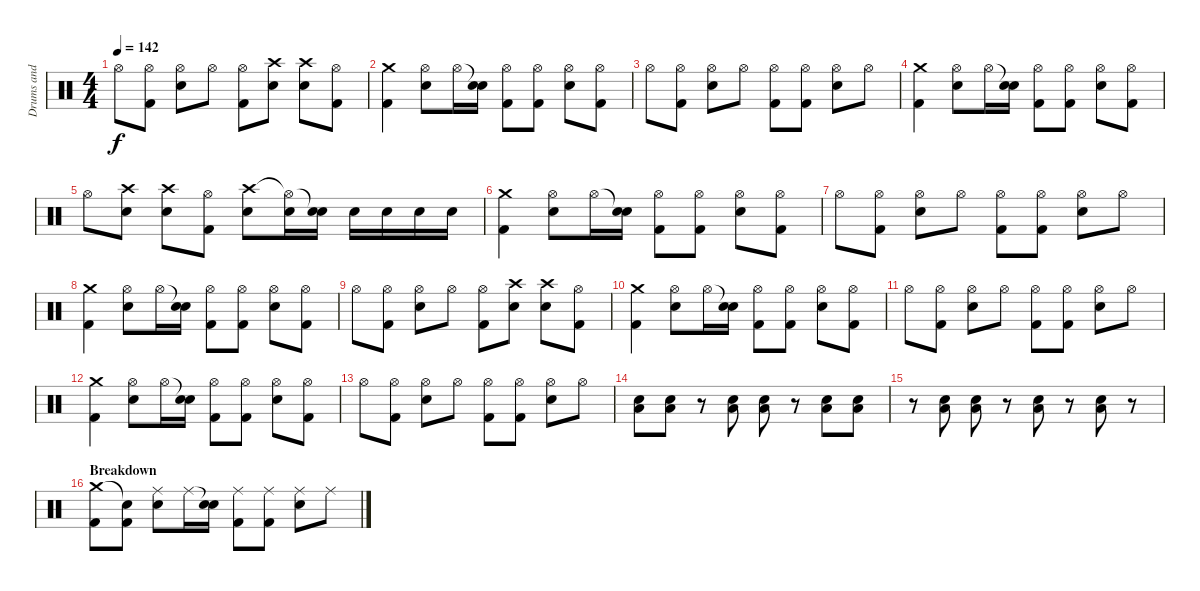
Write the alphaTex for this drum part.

\track ("Drums and Percussion" "Drums and ") {instrument percussion}
\staff {score}
\articulation defaults
\ts (4 4)
\tempo 142
\clef neutral
\ks c "Hi-Hat (open)".8{dy f}
("Hi-Hat (open)" "Kick (hit) 2").8 ("Hi-Hat (open)" "Electric Snare (hit)").8 "Hi-Hat (open)".8 ("Hi-Hat (open)" "Kick (hit) 2").8 ("Crash high (hit)" "Electric Snare (hit)").8 ("Crash high (hit)" "Electric Snare (hit)").8 ("Hi-Hat (open)" "Kick (hit) 2").8 |
("Crash medium (hit)" "Kick (hit) 2").4 ("Hi-Hat (open)" "Electric Snare (hit)").8 "Hi-Hat (open)".16 ("Snare (hit)"{t} "Electric Snare (hit)").16 ("Hi-Hat (open)" "Kick (hit) 2").8 ("Hi-Hat (open)" "Kick (hit) 2").8 ("Hi-Hat (open)" "Electric Snare (hit)").8 ("Hi-Hat (open)" "Kick (hit) 2").8 |
"Hi-Hat (open)".8 ("Hi-Hat (open)" "Kick (hit) 2").8 ("Hi-Hat (open)" "Electric Snare (hit)").8 "Hi-Hat (open)".8 ("Hi-Hat (open)" "Kick (hit) 2").8 ("Hi-Hat (open)" "Kick (hit) 2").8 ("Hi-Hat (open)" "Electric Snare (hit)").8 "Hi-Hat (open)".8 |
("Crash medium (hit)" "Kick (hit) 2").4 ("Hi-Hat (open)" "Electric Snare (hit)").8 "Hi-Hat (open)".16 ("Snare (hit)"{t} "Electric Snare (hit)").16 ("Hi-Hat (open)" "Kick (hit) 2").8 ("Hi-Hat (open)" "Kick (hit) 2").8 ("Hi-Hat (open)" "Electric Snare (hit)").8 ("Hi-Hat (open)" "Kick (hit) 2").8 |
"Hi-Hat (open)".8 ("Crash high (hit)" "Electric Snare (hit)").8 ("Crash high (hit)" "Electric Snare (hit)").8 ("Hi-Hat (open)" "Kick (hit) 2").8 ("Crash high (hit)" "Electric Snare (hit)").8 ("Hi-Hat (open)"{t} "Electric Snare (hit)").16 ("Snare (hit)"{t} "Electric Snare (hit)").16 "Electric Snare (hit)".16 "Electric Snare (hit)".16 "Electric Snare (hit)".16 "Electric Snare (hit)".16 |
("Crash medium (hit)" "Kick (hit) 2").4 ("Hi-Hat (open)" "Electric Snare (hit)").8 "Hi-Hat (open)".16 ("Snare (hit)"{t} "Electric Snare (hit)").16 ("Hi-Hat (open)" "Kick (hit) 2").8 ("Hi-Hat (open)" "Kick (hit) 2").8 ("Hi-Hat (open)" "Electric Snare (hit)").8 ("Hi-Hat (open)" "Kick (hit) 2").8 |
"Hi-Hat (open)".8 ("Hi-Hat (open)" "Kick (hit) 2").8 ("Hi-Hat (open)" "Electric Snare (hit)").8 "Hi-Hat (open)".8 ("Hi-Hat (open)" "Kick (hit) 2").8 ("Hi-Hat (open)" "Kick (hit) 2").8 ("Hi-Hat (open)" "Electric Snare (hit)").8 "Hi-Hat (open)".8 |
("Crash medium (hit)" "Kick (hit) 2").4 ("Hi-Hat (open)" "Electric Snare (hit)").8 "Hi-Hat (open)".16 ("Snare (hit)"{t} "Electric Snare (hit)").16 ("Hi-Hat (open)" "Kick (hit) 2").8 ("Hi-Hat (open)" "Kick (hit) 2").8 ("Hi-Hat (open)" "Electric Snare (hit)").8 ("Hi-Hat (open)" "Kick (hit) 2").8 |
"Hi-Hat (open)".8 ("Hi-Hat (open)" "Kick (hit) 2").8 ("Hi-Hat (open)" "Electric Snare (hit)").8 "Hi-Hat (open)".8 ("Hi-Hat (open)" "Kick (hit) 2").8 ("Crash high (hit)" "Electric Snare (hit)").8 ("Crash high (hit)" "Electric Snare (hit)").8 ("Hi-Hat (open)" "Kick (hit) 2").8 |
("Crash medium (hit)" "Kick (hit) 2").4 ("Hi-Hat (open)" "Electric Snare (hit)").8 "Hi-Hat (open)".16 ("Snare (hit)"{t} "Electric Snare (hit)").16 ("Hi-Hat (open)" "Kick (hit) 2").8 ("Hi-Hat (open)" "Kick (hit) 2").8 ("Hi-Hat (open)" "Electric Snare (hit)").8 ("Hi-Hat (open)" "Kick (hit) 2").8 |
"Hi-Hat (open)".8 ("Hi-Hat (open)" "Kick (hit) 2").8 ("Hi-Hat (open)" "Electric Snare (hit)").8 "Hi-Hat (open)".8 ("Hi-Hat (open)" "Kick (hit) 2").8 ("Hi-Hat (open)" "Kick (hit) 2").8 ("Hi-Hat (open)" "Electric Snare (hit)").8 "Hi-Hat (open)".8 |
("Crash medium (hit)" "Kick (hit) 2").4 ("Hi-Hat (open)" "Electric Snare (hit)").8 "Hi-Hat (open)".16 ("Snare (hit)"{t} "Electric Snare (hit)").16 ("Hi-Hat (open)" "Kick (hit) 2").8 ("Hi-Hat (open)" "Kick (hit) 2").8 ("Hi-Hat (open)" "Electric Snare (hit)").8 ("Hi-Hat (open)" "Kick (hit) 2").8 |
"Hi-Hat (open)".8 ("Hi-Hat (open)" "Kick (hit) 2").8 ("Hi-Hat (open)" "Electric Snare (hit)").8 "Hi-Hat (open)".8 ("Hi-Hat (open)" "Kick (hit) 2").8 ("Hi-Hat (open)" "Kick (hit) 2").8 ("Hi-Hat (open)" "Electric Snare (hit)").8 "Hi-Hat (open)".8 |
("Electric Snare (hit)" "Low Floor Tom (hit)").8 ("Electric Snare (hit)" "Low Floor Tom (hit)").8 r.8 ("Electric Snare (hit)" "Low Floor Tom (hit)").8 ("Electric Snare (hit)" "Low Floor Tom (hit)").8 r.8 ("Electric Snare (hit)" "Low Floor Tom (hit)").8 ("Electric Snare (hit)" "Low Floor Tom (hit)").8 |
r.8 ("Electric Snare (hit)" "Low Floor Tom (hit)").8 ("Electric Snare (hit)" "Low Floor Tom (hit)").8 r.8 ("Electric Snare (hit)" "Low Floor Tom (hit)").8 r.8 ("Electric Snare (hit)" "Low Floor Tom (hit)").8 r.8 |
\section ("" "Breakdown")
("Crash medium (hit)" "Kick (hit) 2").8 ("Snare (hit)"{t} "Kick (hit) 2").8 ("Ride (middle)" "Electric Snare (hit)").8 "Ride (middle)".16 ("Snare (hit)"{t} "Electric Snare (hit)").16 ("Ride (middle)" "Kick (hit) 2").8 ("Ride (middle)" "Kick (hit) 2").8 ("Ride (middle)" "Electric Snare (hit)").8 "Ride (middle)".8
